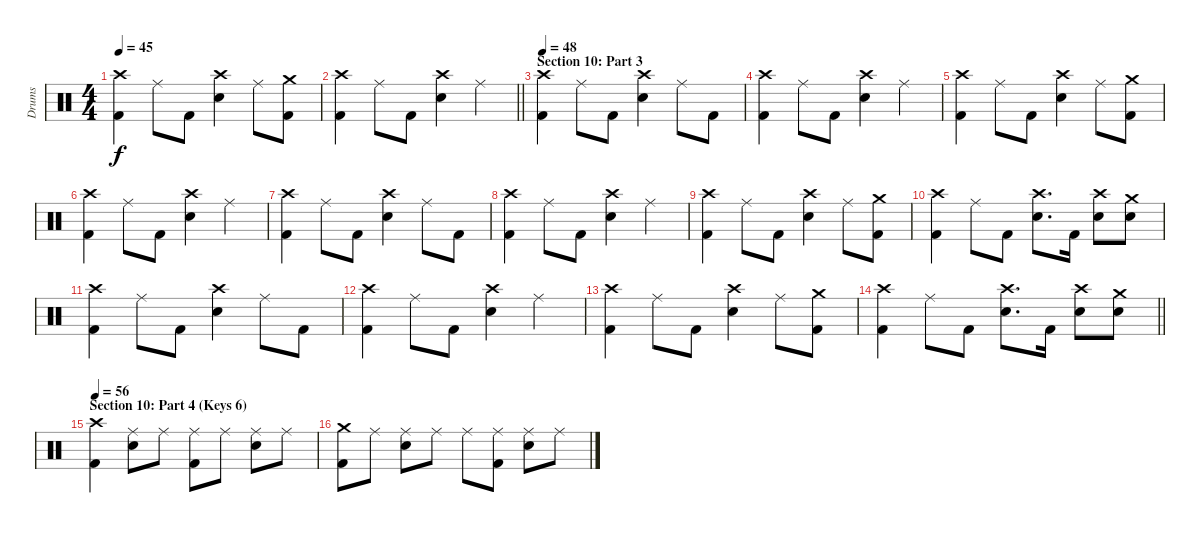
\track ("Drums" "Drums") {instrument percussion}
\staff {score}
\articulation defaults
\ts (4 4)
\tempo 45
\clef neutral
\ks c
("Crash high (hit)" "Kick (hit) 2").4{dy f} "Ride (middle)".8 "Kick (hit) 2".8 ("Crash high (hit)" "Electric Snare (hit)").4 "Ride (middle)".8 ("Crash medium (hit)" "Kick (hit) 2").8 |
\barLineRight lightlight
("Crash high (hit)" "Kick (hit) 2").4 "Ride (middle)".8 "Kick (hit) 2".8 ("Crash high (hit)" "Electric Snare (hit)").4 "Ride (middle)".4 |
\section ("" "Section 10: Part 3")
\tempo 48
("Crash high (hit)" "Kick (hit) 2").4 "Ride (middle)".8 "Kick (hit) 2".8 ("Crash high (hit)" "Electric Snare (hit)").4 "Ride (middle)".8 "Kick (hit) 2".8 |
("Crash high (hit)" "Kick (hit) 2").4 "Ride (middle)".8 "Kick (hit) 2".8 ("Crash high (hit)" "Electric Snare (hit)").4 "Ride (middle)".4 |
("Crash high (hit)" "Kick (hit) 2").4 "Ride (middle)".8 "Kick (hit) 2".8 ("Crash high (hit)" "Electric Snare (hit)").4 "Ride (middle)".8 ("Crash medium (hit)" "Kick (hit) 2").8 |
("Crash high (hit)" "Kick (hit) 2").4 "Ride (middle)".8 "Kick (hit) 2".8 ("Crash high (hit)" "Electric Snare (hit)").4 "Ride (middle)".4 |
("Crash high (hit)" "Kick (hit) 2").4 "Ride (middle)".8 "Kick (hit) 2".8 ("Crash high (hit)" "Electric Snare (hit)").4 "Ride (middle)".8 "Kick (hit) 2".8 |
("Crash high (hit)" "Kick (hit) 2").4 "Ride (middle)".8 "Kick (hit) 2".8 ("Crash high (hit)" "Electric Snare (hit)").4 "Ride (middle)".4 |
("Crash high (hit)" "Kick (hit) 2").4 "Ride (middle)".8 "Kick (hit) 2".8 ("Crash high (hit)" "Electric Snare (hit)").4 "Ride (middle)".8 ("Crash medium (hit)" "Kick (hit) 2").8 |
("Crash high (hit)" "Kick (hit) 2").4 "Ride (middle)".8 "Kick (hit) 2".8 ("Crash high (hit)" "Electric Snare (hit)").8{d} "Kick (hit) 2".16 ("Crash high (hit)" "Electric Snare (hit)").8 ("Crash medium (hit)" "Electric Snare (hit)").8 |
("Crash high (hit)" "Kick (hit) 2").4 "Ride (middle)".8 "Kick (hit) 2".8 ("Crash high (hit)" "Electric Snare (hit)").4 "Ride (middle)".8 "Kick (hit) 2".8 |
("Crash high (hit)" "Kick (hit) 2").4 "Ride (middle)".8 "Kick (hit) 2".8 ("Crash high (hit)" "Electric Snare (hit)").4 "Ride (middle)".4 |
("Crash high (hit)" "Kick (hit) 2").4 "Ride (middle)".8 "Kick (hit) 2".8 ("Crash high (hit)" "Electric Snare (hit)").4 "Ride (middle)".8 ("Crash medium (hit)" "Kick (hit) 2").8 |
\barLineRight lightlight
("Crash high (hit)" "Kick (hit) 2").4 "Ride (middle)".8 "Kick (hit) 2".8 ("Crash high (hit)" "Electric Snare (hit)").8{d} "Kick (hit) 2".16 ("Crash high (hit)" "Electric Snare (hit)").8 ("Crash medium (hit)" "Electric Snare (hit)").8 |
\section ("" "Section 10: Part 4 (Keys 6)")
\tempo 56
("Crash high (hit)" "Kick (hit) 2").4 ("Ride (middle)" "Electric Snare (hit)").8 "Ride (middle)".8 ("Ride (middle)" "Kick (hit) 2").8 "Ride (middle)".8 ("Ride (middle)" "Electric Snare (hit)").8 "Ride (middle)".8 |
("Crash medium (hit)" "Kick (hit) 2").8 "Ride (middle)".8 ("Ride (middle)" "Electric Snare (hit)").8 "Ride (middle)".8 "Ride (middle)".8 ("Ride (middle)" "Kick (hit) 2").8 ("Ride (middle)" "Electric Snare (hit)").8 "Ride (middle)".8
